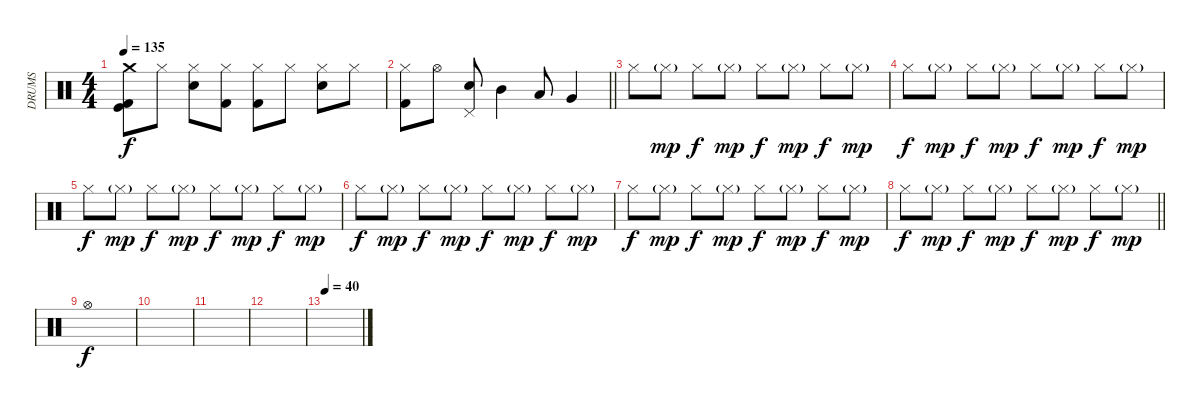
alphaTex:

\track ("DRUMS" "DRUMS") {instrument percussion}
\staff {score}
\articulation defaults
\ts (4 4)
\tempo 135
\clef neutral
\ks c
("Crash medium (hit)" "Kick (hit) 2" "Kick (hit)").8{dy f} "Hi-Hat (closed)".8 ("Hi-Hat (closed)" "Electric Snare (hit)").8 ("Hi-Hat (closed)" "Kick (hit) 2").8 ("Hi-Hat (closed)" "Kick (hit) 2").8 "Hi-Hat (closed)".8 ("Hi-Hat (closed)" "Electric Snare (hit)").8 "Hi-Hat (closed)".8 |
\barLineRight lightlight
("Hi-Hat (closed)" "Kick (hit) 2").8 "Hi-Hat (open)".8 ("Pedal Hi-Hat (hit)" "Electric Snare (hit)").8 "Mid Tom (hit)".4 "Low Tom (hit)".8 "Very Low Tom (hit)".4 |
"Hi-Hat (closed)".8 "Hi-Hat (closed)"{g}.8{dy mp} "Hi-Hat (closed)".8{dy f} "Hi-Hat (closed)"{g}.8{dy mp} "Hi-Hat (closed)".8{dy f} "Hi-Hat (closed)"{g}.8{dy mp} "Hi-Hat (closed)".8{dy f} "Hi-Hat (closed)"{g}.8{dy mp} |
"Hi-Hat (closed)".8{dy f} "Hi-Hat (closed)"{g}.8{dy mp} "Hi-Hat (closed)".8{dy f} "Hi-Hat (closed)"{g}.8{dy mp} "Hi-Hat (closed)".8{dy f} "Hi-Hat (closed)"{g}.8{dy mp} "Hi-Hat (closed)".8{dy f} "Hi-Hat (closed)"{g}.8{dy mp} |
"Hi-Hat (closed)".8{dy f} "Hi-Hat (closed)"{g}.8{dy mp} "Hi-Hat (closed)".8{dy f} "Hi-Hat (closed)"{g}.8{dy mp} "Hi-Hat (closed)".8{dy f} "Hi-Hat (closed)"{g}.8{dy mp} "Hi-Hat (closed)".8{dy f} "Hi-Hat (closed)"{g}.8{dy mp} |
"Hi-Hat (closed)".8{dy f} "Hi-Hat (closed)"{g}.8{dy mp} "Hi-Hat (closed)".8{dy f} "Hi-Hat (closed)"{g}.8{dy mp} "Hi-Hat (closed)".8{dy f} "Hi-Hat (closed)"{g}.8{dy mp} "Hi-Hat (closed)".8{dy f} "Hi-Hat (closed)"{g}.8{dy mp} |
"Hi-Hat (closed)".8{dy f} "Hi-Hat (closed)"{g}.8{dy mp} "Hi-Hat (closed)".8{dy f} "Hi-Hat (closed)"{g}.8{dy mp} "Hi-Hat (closed)".8{dy f} "Hi-Hat (closed)"{g}.8{dy mp} "Hi-Hat (closed)".8{dy f} "Hi-Hat (closed)"{g}.8{dy mp} |
\barLineRight lightlight "Hi-Hat (closed)".8{dy f} "Hi-Hat (closed)"{g}.8{dy mp} "Hi-Hat (closed)".8{dy f} "Hi-Hat (closed)"{g}.8{dy mp} "Hi-Hat (closed)".8{dy f} "Hi-Hat (closed)"{g}.8{dy mp} "Hi-Hat (closed)".8{dy f} "Hi-Hat (closed)"{g}.8{dy mp}
|
"Hi-Hat (open)".1{dy f} |
|
|
|
\tempo 40
